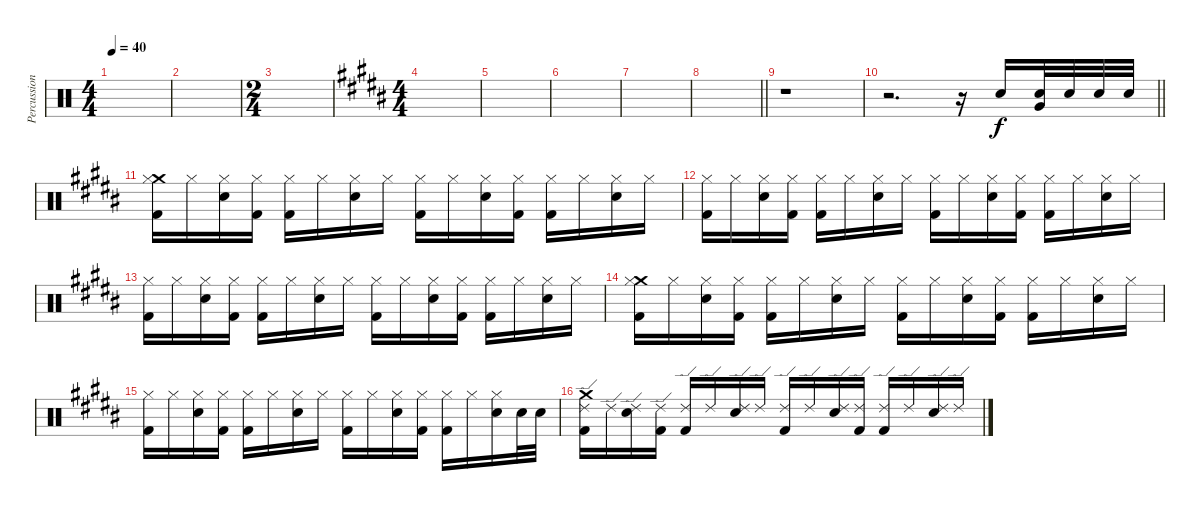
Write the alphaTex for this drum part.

\track ("Percussion" "Percussion") {instrument percussion}
\staff {score}
\articulation defaults
\ts (4 4)
\tempo 40
\clef neutral
\ks c
|
|
\ts (2 4)
|
\ts (4 4)
\ks b
|
|
|
|
\barLineRight lightlight
|
r.1 |
\barLineRight lightlight
r.2{d} r.16 "Snare (hit) 2".16 ("Very Low Tom (hit)" "Snare (hit) 2").32 "Snare (hit) 2".32 "Snare (hit) 2".32 "Snare (hit) 2".32 |
("Crash medium (hit)" "Hi-Hat (closed)" "Kick (hit) 2").16 "Hi-Hat (closed)".16 ("Hi-Hat (closed)" "Snare (hit) 2").16 ("Hi-Hat (closed)" "Kick (hit) 2").16 ("Hi-Hat (closed)" "Kick (hit) 2").16 "Hi-Hat (closed)".16 ("Hi-Hat (closed)" "Snare (hit) 2").16 "Hi-Hat (closed)".16 ("Hi-Hat (closed)" "Kick (hit) 2").16 "Hi-Hat (closed)".16 ("Hi-Hat (closed)" "Snare (hit) 2").16 ("Hi-Hat (closed)" "Kick (hit) 2").16 ("Hi-Hat (closed)" "Kick (hit) 2").16 "Hi-Hat (closed)".16 ("Hi-Hat (closed)" "Snare (hit) 2").16 "Hi-Hat (closed)".16 |
("Hi-Hat (closed)" "Kick (hit) 2").16 "Hi-Hat (closed)".16 ("Hi-Hat (closed)" "Snare (hit) 2").16 ("Hi-Hat (closed)" "Kick (hit) 2").16 ("Hi-Hat (closed)" "Kick (hit) 2").16 "Hi-Hat (closed)".16 ("Hi-Hat (closed)" "Snare (hit) 2").16 "Hi-Hat (closed)".16 ("Hi-Hat (closed)" "Kick (hit) 2").16 "Hi-Hat (closed)".16 ("Hi-Hat (closed)" "Snare (hit) 2").16 ("Hi-Hat (closed)" "Kick (hit) 2").16 ("Hi-Hat (closed)" "Kick (hit) 2").16 "Hi-Hat (closed)".16 ("Hi-Hat (closed)" "Snare (hit) 2").16 "Hi-Hat (closed)".16 |
("Hi-Hat (closed)" "Kick (hit) 2").16 "Hi-Hat (closed)".16 ("Hi-Hat (closed)" "Snare (hit) 2").16 ("Hi-Hat (closed)" "Kick (hit) 2").16 ("Hi-Hat (closed)" "Kick (hit) 2").16 "Hi-Hat (closed)".16 ("Hi-Hat (closed)" "Snare (hit) 2").16 "Hi-Hat (closed)".16 ("Hi-Hat (closed)" "Kick (hit) 2").16 "Hi-Hat (closed)".16 ("Hi-Hat (closed)" "Snare (hit) 2").16 ("Hi-Hat (closed)" "Kick (hit) 2").16 ("Hi-Hat (closed)" "Kick (hit) 2").16 "Hi-Hat (closed)".16 ("Hi-Hat (closed)" "Snare (hit) 2").16 "Hi-Hat (closed)".16 |
("Crash medium (hit)" "Hi-Hat (closed)" "Kick (hit) 2").16 "Hi-Hat (closed)".16 ("Hi-Hat (closed)" "Snare (hit) 2").16 ("Hi-Hat (closed)" "Kick (hit) 2").16 ("Hi-Hat (closed)" "Kick (hit) 2").16 "Hi-Hat (closed)".16 ("Hi-Hat (closed)" "Snare (hit) 2").16 "Hi-Hat (closed)".16 ("Hi-Hat (closed)" "Kick (hit) 2").16 "Hi-Hat (closed)".16 ("Hi-Hat (closed)" "Snare (hit) 2").16 ("Hi-Hat (closed)" "Kick (hit) 2").16 ("Hi-Hat (closed)" "Kick (hit) 2").16 "Hi-Hat (closed)".16 ("Hi-Hat (closed)" "Snare (hit) 2").16 "Hi-Hat (closed)".16 |
("Hi-Hat (closed)" "Kick (hit) 2").16 "Hi-Hat (closed)".16 ("Hi-Hat (closed)" "Snare (hit) 2").16 ("Hi-Hat (closed)" "Kick (hit) 2").16 ("Hi-Hat (closed)" "Kick (hit) 2").16 "Hi-Hat (closed)".16 ("Hi-Hat (closed)" "Snare (hit) 2").16 "Hi-Hat (closed)".16 ("Hi-Hat (closed)" "Kick (hit) 2").16 "Hi-Hat (closed)".16 ("Hi-Hat (closed)" "Snare (hit) 2").16 ("Hi-Hat (closed)" "Kick (hit) 2").16 ("Hi-Hat (closed)" "Kick (hit) 2").16 "Hi-Hat (closed)".16 ("Hi-Hat (closed)" "Snare (hit) 2").16 "Snare (hit) 2".32 "Snare (hit) 2".32 |
("Ride (edge) 2" "Crash medium (hit)" "Kick (hit) 2").16 "Ride (edge) 2".16 ("Ride (edge) 2" "Snare (hit) 2").16 ("Ride (edge) 2" "Kick (hit) 2").16 ("Ride (edge) 2" "Kick (hit) 2").16 "Ride (edge) 2".16 ("Ride (edge) 2" "Snare (hit) 2").16 "Ride (edge) 2".16 ("Ride (edge) 2" "Kick (hit) 2").16 "Ride (edge) 2".16 ("Ride (edge) 2" "Snare (hit) 2").16 ("Ride (edge) 2" "Kick (hit) 2").16 ("Ride (edge) 2" "Kick (hit) 2").16 "Ride (edge) 2".16 ("Ride (edge) 2" "Snare (hit) 2").16 "Ride (edge) 2".16
